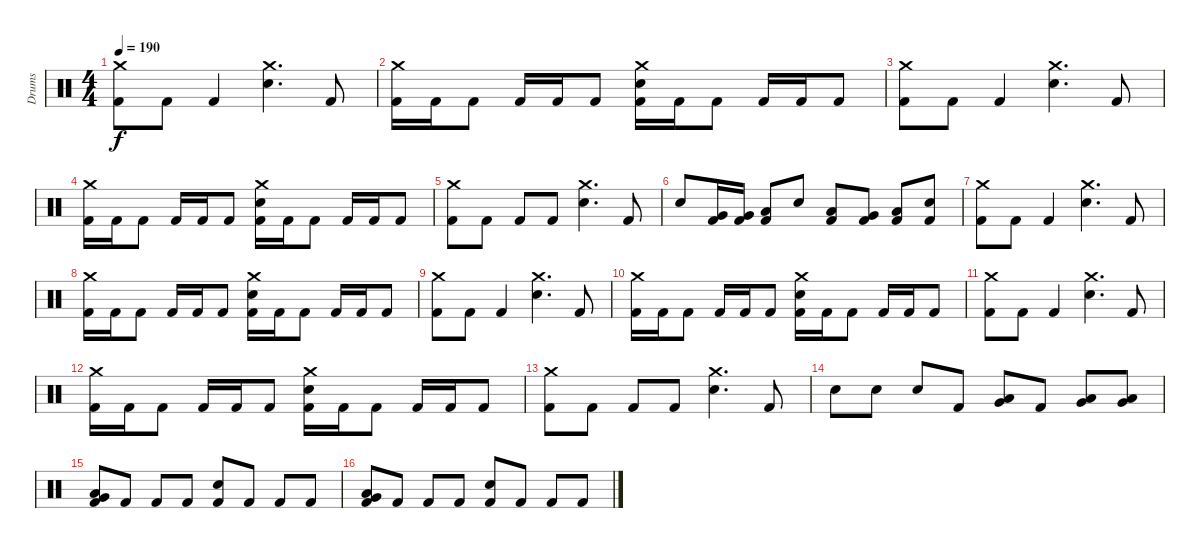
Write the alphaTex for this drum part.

\track ("Drums" "Drums") {instrument percussion}
\staff {score}
\articulation defaults
\ts (4 4)
\tempo 190
\clef neutral
\ks c
("Crash medium (hit)" "Kick (hit) 2").8{dy f} "Kick (hit) 2".8 "Kick (hit) 2".4 ("Crash medium (hit)" "Snare (hit) 2").4{d} "Kick (hit) 2".8 |
("Crash medium (hit)" "Kick (hit) 2").16 "Kick (hit) 2".16 "Kick (hit) 2".8 "Kick (hit) 2".16 "Kick (hit) 2".16 "Kick (hit) 2".8 ("Crash medium (hit)" "Snare (hit) 2" "Kick (hit) 2").16 "Kick (hit) 2".16 "Kick (hit) 2".8 "Kick (hit) 2".16 "Kick (hit) 2".16 "Kick (hit) 2".8 |
("Crash medium (hit)" "Kick (hit) 2").8 "Kick (hit) 2".8 "Kick (hit) 2".4 ("Crash medium (hit)" "Snare (hit) 2").4{d} "Kick (hit) 2".8 |
("Crash medium (hit)" "Kick (hit) 2").16 "Kick (hit) 2".16 "Kick (hit) 2".8 "Kick (hit) 2".16 "Kick (hit) 2".16 "Kick (hit) 2".8 ("Crash medium (hit)" "Snare (hit) 2" "Kick (hit) 2").16 "Kick (hit) 2".16 "Kick (hit) 2".8 "Kick (hit) 2".16 "Kick (hit) 2".16 "Kick (hit) 2".8 |
("Crash medium (hit)" "Kick (hit) 2").8 "Kick (hit) 2".8 "Kick (hit) 2".8 "Kick (hit) 2".8 ("Crash medium (hit)" "Snare (hit) 2").4{d} "Kick (hit) 2".8 |
"Snare (hit) 2".8 ("Very Low Tom (hit)" "Kick (hit) 2").16 ("Very Low Tom (hit)" "Kick (hit) 2").16 ("Low Floor Tom (hit)" "Kick (hit) 2").8 "Snare (hit) 2".8 ("Low Tom (hit)" "Kick (hit) 2").8 ("Very Low Tom (hit)" "Kick (hit) 2").8 ("Low Floor Tom (hit)" "Kick (hit) 2").8 ("Snare (hit) 2" "Kick (hit) 2").8 |
("Crash medium (hit)" "Kick (hit) 2").8 "Kick (hit) 2".8 "Kick (hit) 2".4 ("Crash medium (hit)" "Snare (hit) 2").4{d} "Kick (hit) 2".8 |
("Crash medium (hit)" "Kick (hit) 2").16 "Kick (hit) 2".16 "Kick (hit) 2".8 "Kick (hit) 2".16 "Kick (hit) 2".16 "Kick (hit) 2".8 ("Crash medium (hit)" "Snare (hit) 2" "Kick (hit) 2").16 "Kick (hit) 2".16 "Kick (hit) 2".8 "Kick (hit) 2".16 "Kick (hit) 2".16 "Kick (hit) 2".8 |
("Crash medium (hit)" "Kick (hit) 2").8 "Kick (hit) 2".8 "Kick (hit) 2".4 ("Crash medium (hit)" "Snare (hit) 2").4{d} "Kick (hit) 2".8 |
("Crash medium (hit)" "Kick (hit) 2").16 "Kick (hit) 2".16 "Kick (hit) 2".8 "Kick (hit) 2".16 "Kick (hit) 2".16 "Kick (hit) 2".8 ("Crash medium (hit)" "Snare (hit) 2" "Kick (hit) 2").16 "Kick (hit) 2".16 "Kick (hit) 2".8 "Kick (hit) 2".16 "Kick (hit) 2".16 "Kick (hit) 2".8 |
("Crash medium (hit)" "Kick (hit) 2").8 "Kick (hit) 2".8 "Kick (hit) 2".4 ("Crash medium (hit)" "Snare (hit) 2").4{d} "Kick (hit) 2".8 |
("Crash medium (hit)" "Kick (hit) 2").16 "Kick (hit) 2".16 "Kick (hit) 2".8 "Kick (hit) 2".16 "Kick (hit) 2".16 "Kick (hit) 2".8 ("Crash medium (hit)" "Snare (hit) 2" "Kick (hit) 2").16 "Kick (hit) 2".16 "Kick (hit) 2".8 "Kick (hit) 2".16 "Kick (hit) 2".16 "Kick (hit) 2".8 |
("Crash medium (hit)" "Kick (hit) 2").8 "Kick (hit) 2".8 "Kick (hit) 2".8 "Kick (hit) 2".8 ("Crash medium (hit)" "Snare (hit) 2").4{d} "Kick (hit) 2".8 |
"Snare (hit) 2".8 "Snare (hit) 2".8 "Snare (hit) 2".8 "Kick (hit) 2".8 ("Very Low Tom (hit)" "Low Tom (hit)").8 "Kick (hit) 2".8 ("Low Floor Tom (hit)" "Very Low Tom (hit)").8 ("Low Floor Tom (hit)" "Very Low Tom (hit)").8 |
("Low Floor Tom (hit)" "Very Low Tom (hit)" "Kick (hit) 2").8 "Kick (hit) 2".8 "Kick (hit) 2".8 "Kick (hit) 2".8 ("Snare (hit) 2" "Kick (hit) 2").8 "Kick (hit) 2".8 "Kick (hit) 2".8 "Kick (hit) 2".8 |
("Low Floor Tom (hit)" "Very Low Tom (hit)" "Kick (hit) 2").8 "Kick (hit) 2".8 "Kick (hit) 2".8 "Kick (hit) 2".8 ("Snare (hit) 2" "Kick (hit) 2").8 "Kick (hit) 2".8 "Kick (hit) 2".8 "Kick (hit) 2".8
